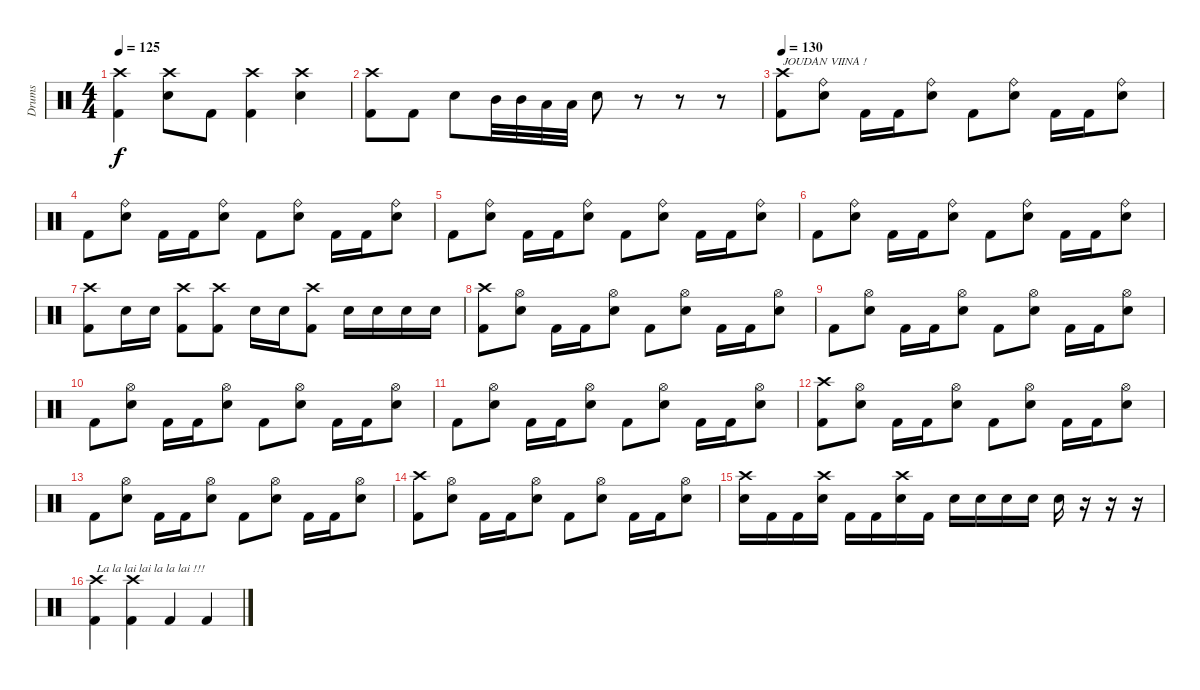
\track ("Drums" "Drums") {instrument percussion}
\staff {score}
\articulation defaults
\ts (4 4)
\tempo 125
\clef neutral
\ks c
("Crash high (hit)" "Kick (hit) 2").4{dy f} ("Crash high (hit)" "Electric Snare (hit)").8 "Kick (hit) 2".8 ("Crash high (hit)" "Kick (hit) 2").4 ("Crash high (hit)" "Electric Snare (hit)").4 |
("Crash high (hit)" "Kick (hit) 2").8 "Kick (hit) 2".8 "Electric Snare (hit)".8 "Mid Tom (hit)".32 "Mid Tom (hit)".32 "Low Tom (hit)".32 "Low Tom (hit)".32 "Electric Snare (hit)".8 r.8 r.8 r.8 |
\tempo 125
\tempo 130
("Crash high (hit)" "Kick (hit) 2").8{txt "JOUDAN VIINA !"} ("Ride (bell)" "Electric Snare (hit)").8 "Kick (hit) 2".16 "Kick (hit) 2".16 ("Ride (bell)" "Electric Snare (hit)").8 "Kick (hit) 2".8 ("Ride (bell)" "Electric Snare (hit)").8 "Kick (hit) 2".16 "Kick (hit) 2".16 ("Ride (bell)" "Electric Snare (hit)").8 |
"Kick (hit) 2".8 ("Ride (bell)" "Electric Snare (hit)").8 "Kick (hit) 2".16 "Kick (hit) 2".16 ("Ride (bell)" "Electric Snare (hit)").8 "Kick (hit) 2".8 ("Ride (bell)" "Electric Snare (hit)").8 "Kick (hit) 2".16 "Kick (hit) 2".16 ("Ride (bell)" "Electric Snare (hit)").8 |
"Kick (hit) 2".8 ("Ride (bell)" "Electric Snare (hit)").8 "Kick (hit) 2".16 "Kick (hit) 2".16 ("Ride (bell)" "Electric Snare (hit)").8 "Kick (hit) 2".8 ("Ride (bell)" "Electric Snare (hit)").8 "Kick (hit) 2".16 "Kick (hit) 2".16 ("Ride (bell)" "Electric Snare (hit)").8 |
"Kick (hit) 2".8 ("Ride (bell)" "Electric Snare (hit)").8 "Kick (hit) 2".16 "Kick (hit) 2".16 ("Ride (bell)" "Electric Snare (hit)").8 "Kick (hit) 2".8 ("Ride (bell)" "Electric Snare (hit)").8 "Kick (hit) 2".16 "Kick (hit) 2".16 ("Ride (bell)" "Electric Snare (hit)").8 |
("Crash high (hit)" "Kick (hit) 2").8 "Electric Snare (hit)".16 "Electric Snare (hit)".16 ("Crash high (hit)" "Kick (hit) 2").8 ("Crash high (hit)" "Kick (hit) 2").8 "Electric Snare (hit)".16 "Electric Snare (hit)".16 ("Crash high (hit)" "Kick (hit) 2").8 "Electric Snare (hit)".16 "Electric Snare (hit)".16 "Electric Snare (hit)".16 "Electric Snare (hit)".16 |
("Crash high (hit)" "Kick (hit) 2").8 ("Hi-Hat (open)" "Electric Snare (hit)").8 "Kick (hit) 2".16 "Kick (hit) 2".16 ("Hi-Hat (open)" "Electric Snare (hit)").8 "Kick (hit) 2".8 ("Hi-Hat (open)" "Electric Snare (hit)").8 "Kick (hit) 2".16 "Kick (hit) 2".16 ("Hi-Hat (open)" "Electric Snare (hit)").8 |
"Kick (hit) 2".8 ("Hi-Hat (open)" "Electric Snare (hit)").8 "Kick (hit) 2".16 "Kick (hit) 2".16 ("Hi-Hat (open)" "Electric Snare (hit)").8 "Kick (hit) 2".8 ("Hi-Hat (open)" "Electric Snare (hit)").8 "Kick (hit) 2".16 "Kick (hit) 2".16 ("Hi-Hat (open)" "Electric Snare (hit)").8 |
"Kick (hit) 2".8 ("Hi-Hat (open)" "Electric Snare (hit)").8 "Kick (hit) 2".16 "Kick (hit) 2".16 ("Hi-Hat (open)" "Electric Snare (hit)").8 "Kick (hit) 2".8 ("Hi-Hat (open)" "Electric Snare (hit)").8 "Kick (hit) 2".16 "Kick (hit) 2".16 ("Hi-Hat (open)" "Electric Snare (hit)").8 |
"Kick (hit) 2".8 ("Hi-Hat (open)" "Electric Snare (hit)").8 "Kick (hit) 2".16 "Kick (hit) 2".16 ("Hi-Hat (open)" "Electric Snare (hit)").8 "Kick (hit) 2".8 ("Hi-Hat (open)" "Electric Snare (hit)").8 "Kick (hit) 2".16 "Kick (hit) 2".16 ("Hi-Hat (open)" "Electric Snare (hit)").8 |
("Crash high (hit)" "Kick (hit) 2").8 ("Hi-Hat (open)" "Electric Snare (hit)").8 "Kick (hit) 2".16 "Kick (hit) 2".16 ("Hi-Hat (open)" "Electric Snare (hit)").8 "Kick (hit) 2".8 ("Hi-Hat (open)" "Electric Snare (hit)").8 "Kick (hit) 2".16 "Kick (hit) 2".16 ("Hi-Hat (open)" "Electric Snare (hit)").8 |
"Kick (hit) 2".8 ("Hi-Hat (open)" "Electric Snare (hit)").8 "Kick (hit) 2".16 "Kick (hit) 2".16 ("Hi-Hat (open)" "Electric Snare (hit)").8 "Kick (hit) 2".8 ("Hi-Hat (open)" "Electric Snare (hit)").8 "Kick (hit) 2".16 "Kick (hit) 2".16 ("Hi-Hat (open)" "Electric Snare (hit)").8 |
("Crash high (hit)" "Kick (hit) 2").8 ("Hi-Hat (open)" "Electric Snare (hit)").8 "Kick (hit) 2".16 "Kick (hit) 2".16 ("Hi-Hat (open)" "Electric Snare (hit)").8 "Kick (hit) 2".8 ("Hi-Hat (open)" "Electric Snare (hit)").8 "Kick (hit) 2".16 "Kick (hit) 2".16 ("Hi-Hat (open)" "Electric Snare (hit)").8 |
("Crash high (hit)" "Electric Snare (hit)").16 "Kick (hit) 2".16 "Kick (hit) 2".16 ("Crash high (hit)" "Electric Snare (hit)").16 "Kick (hit) 2".16 "Kick (hit) 2".16 ("Crash high (hit)" "Electric Snare (hit)").16 "Kick (hit) 2".16 "Electric Snare (hit)".16 "Electric Snare (hit)".16 "Electric Snare (hit)".16 "Electric Snare (hit)".16 "Electric Snare (hit)".16 r.16 r.16 r.16 |
("Crash high (hit)" "Kick (hit) 2").4{txt "La la lai lai la la lai !!!"} ("Crash high (hit)" "Kick (hit) 2").4 "Kick (hit) 2".4 "Kick (hit) 2".4
